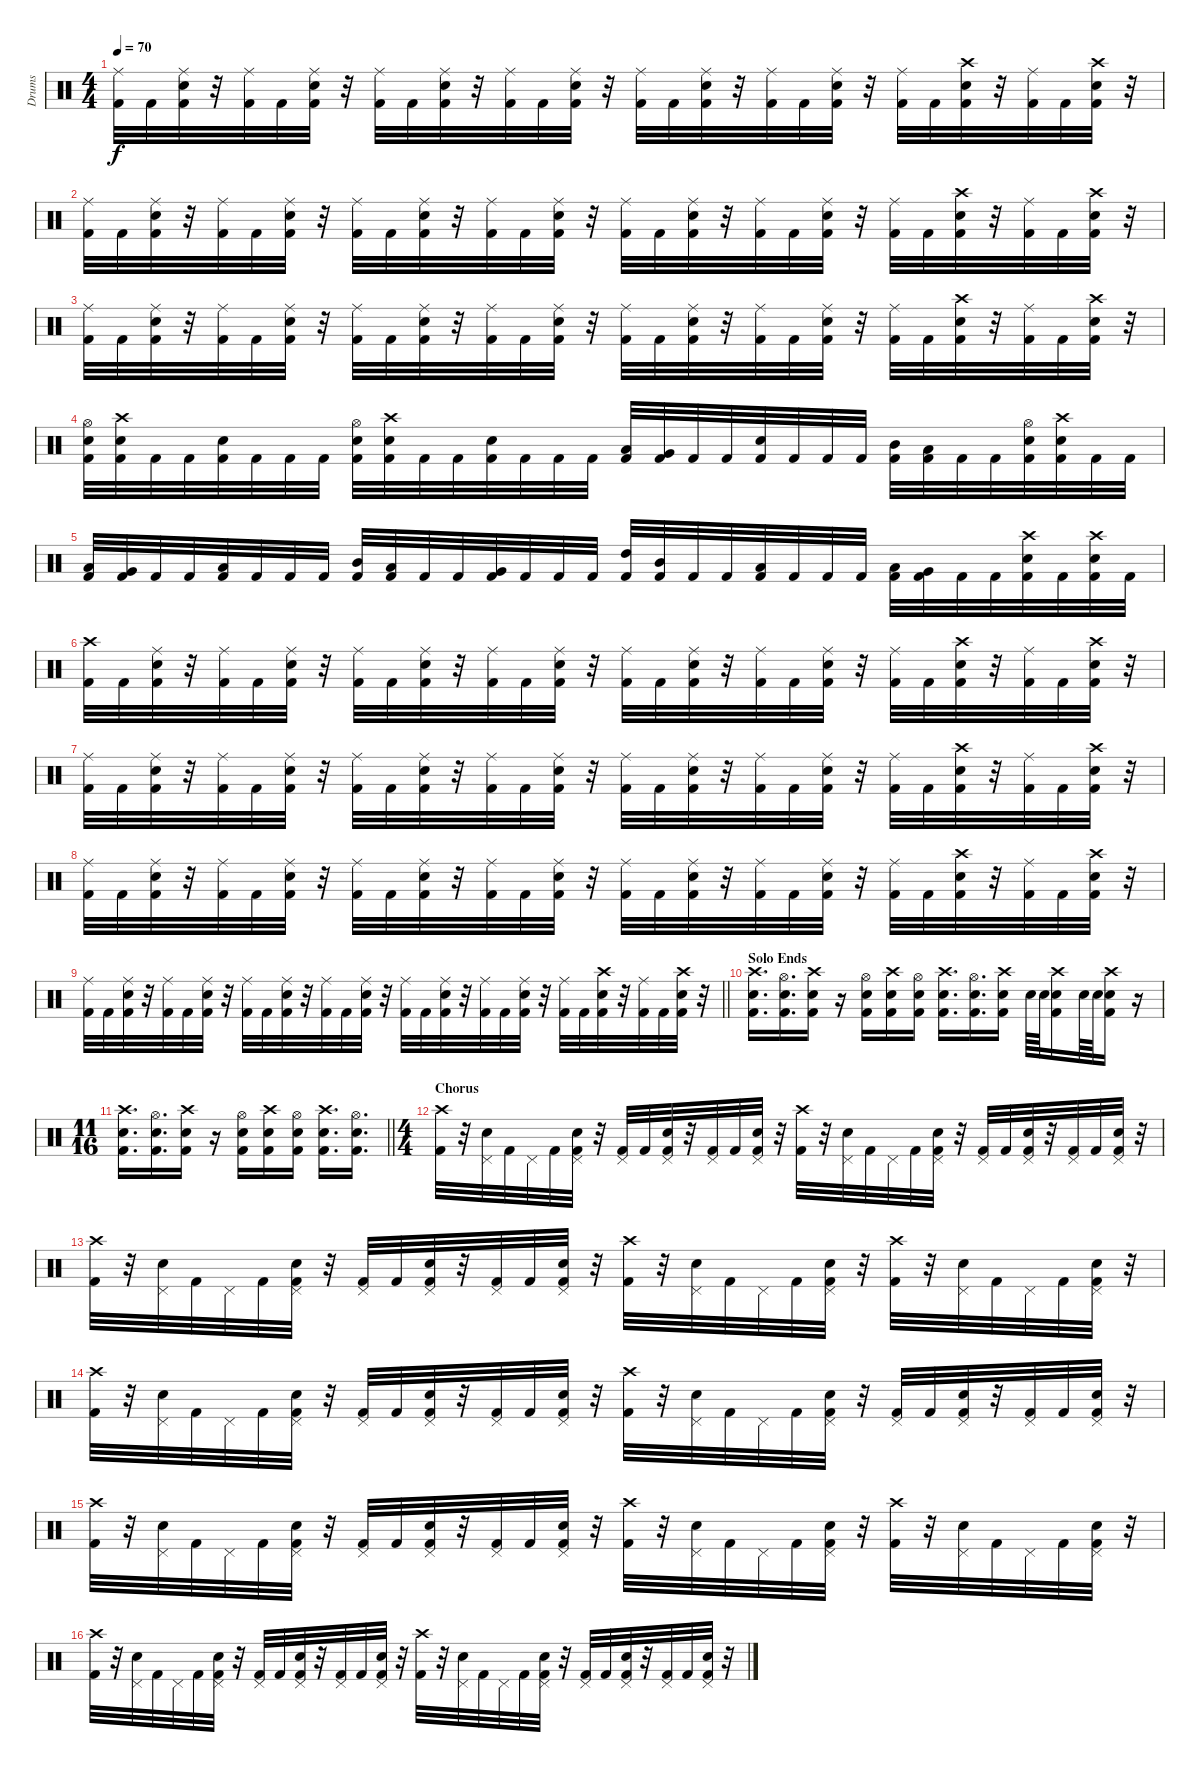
\track ("Drums" "Drums") {instrument percussion}
\staff {score}
\articulation defaults
\ts (4 4)
\tempo 70
\clef neutral
\ks c
("Ride (middle)" "Kick (hit) 2").32{dy f} "Kick (hit) 2".32 ("Ride (middle)" "Snare (hit) 2" "Kick (hit) 2").32 r.32 ("Ride (middle)" "Kick (hit) 2").32 "Kick (hit) 2".32 ("Ride (middle)" "Snare (hit) 2" "Kick (hit) 2").32 r.32 ("Ride (middle)" "Kick (hit) 2").32 "Kick (hit) 2".32 ("Ride (middle)" "Snare (hit) 2" "Kick (hit) 2").32 r.32 ("Ride (middle)" "Kick (hit) 2").32 "Kick (hit) 2".32 ("Ride (middle)" "Snare (hit) 2" "Kick (hit) 2").32 r.32 ("Ride (middle)" "Kick (hit) 2").32 "Kick (hit) 2".32 ("Ride (middle)" "Snare (hit) 2" "Kick (hit) 2").32 r.32 ("Ride (middle)" "Kick (hit) 2").32 "Kick (hit) 2".32 ("Ride (middle)" "Snare (hit) 2" "Kick (hit) 2").32 r.32 ("Ride (middle)" "Kick (hit) 2").32 "Kick (hit) 2".32 ("Crash high (hit)" "Snare (hit) 2" "Kick (hit) 2").32 r.32 ("Ride (middle)" "Kick (hit) 2").32 "Kick (hit) 2".32 ("Crash high (hit)" "Snare (hit) 2" "Kick (hit) 2").32 r.32 |
("Ride (middle)" "Kick (hit) 2").32 "Kick (hit) 2".32 ("Ride (middle)" "Snare (hit) 2" "Kick (hit) 2").32 r.32 ("Ride (middle)" "Kick (hit) 2").32 "Kick (hit) 2".32 ("Ride (middle)" "Snare (hit) 2" "Kick (hit) 2").32 r.32 ("Ride (middle)" "Kick (hit) 2").32 "Kick (hit) 2".32 ("Ride (middle)" "Snare (hit) 2" "Kick (hit) 2").32 r.32 ("Ride (middle)" "Kick (hit) 2").32 "Kick (hit) 2".32 ("Ride (middle)" "Snare (hit) 2" "Kick (hit) 2").32 r.32 ("Ride (middle)" "Kick (hit) 2").32 "Kick (hit) 2".32 ("Ride (middle)" "Snare (hit) 2" "Kick (hit) 2").32 r.32 ("Ride (middle)" "Kick (hit) 2").32 "Kick (hit) 2".32 ("Ride (middle)" "Snare (hit) 2" "Kick (hit) 2").32 r.32 ("Ride (middle)" "Kick (hit) 2").32 "Kick (hit) 2".32 ("Crash high (hit)" "Snare (hit) 2" "Kick (hit) 2").32 r.32 ("Ride (middle)" "Kick (hit) 2").32 "Kick (hit) 2".32 ("Crash high (hit)" "Snare (hit) 2" "Kick (hit) 2").32 r.32 |
("Ride (middle)" "Kick (hit) 2").32 "Kick (hit) 2".32 ("Ride (middle)" "Snare (hit) 2" "Kick (hit) 2").32 r.32 ("Ride (middle)" "Kick (hit) 2").32 "Kick (hit) 2".32 ("Ride (middle)" "Snare (hit) 2" "Kick (hit) 2").32 r.32 ("Ride (middle)" "Kick (hit) 2").32 "Kick (hit) 2".32 ("Ride (middle)" "Snare (hit) 2" "Kick (hit) 2").32 r.32 ("Ride (middle)" "Kick (hit) 2").32 "Kick (hit) 2".32 ("Ride (middle)" "Snare (hit) 2" "Kick (hit) 2").32 r.32 ("Ride (middle)" "Kick (hit) 2").32 "Kick (hit) 2".32 ("Ride (middle)" "Snare (hit) 2" "Kick (hit) 2").32 r.32 ("Ride (middle)" "Kick (hit) 2").32 "Kick (hit) 2".32 ("Ride (middle)" "Snare (hit) 2" "Kick (hit) 2").32 r.32 ("Ride (middle)" "Kick (hit) 2").32 "Kick (hit) 2".32 ("Crash high (hit)" "Snare (hit) 2" "Kick (hit) 2").32 r.32 ("Ride (middle)" "Kick (hit) 2").32 "Kick (hit) 2".32 ("Crash high (hit)" "Snare (hit) 2" "Kick (hit) 2").32 r.32 |
("Hi-Hat (open)" "Snare (hit) 2" "Kick (hit) 2").32 ("Crash high (hit)" "Snare (hit) 2" "Kick (hit) 2").32 "Kick (hit) 2".32 "Kick (hit) 2".32 ("Snare (hit) 2" "Kick (hit) 2").32 "Kick (hit) 2".32 "Kick (hit) 2".32 "Kick (hit) 2".32 ("Hi-Hat (open)" "Snare (hit) 2" "Kick (hit) 2").32 ("Crash high (hit)" "Snare (hit) 2" "Kick (hit) 2").32 "Kick (hit) 2".32 "Kick (hit) 2".32 ("Snare (hit) 2" "Kick (hit) 2").32 "Kick (hit) 2".32 "Kick (hit) 2".32 "Kick (hit) 2".32 ("Low Tom (hit)" "Kick (hit) 2").32 ("Very Low Tom (hit)" "Kick (hit) 2").32 "Kick (hit) 2".32 "Kick (hit) 2".32 ("Snare (hit) 2" "Kick (hit) 2").32 "Kick (hit) 2".32 "Kick (hit) 2".32 "Kick (hit) 2".32 ("Mid Tom (hit)" "Kick (hit) 2").32 ("Low Tom (hit)" "Kick (hit) 2").32 "Kick (hit) 2".32 "Kick (hit) 2".32 ("Hi-Hat (open)" "Snare (hit) 2" "Kick (hit) 2").32 ("Crash high (hit)" "Snare (hit) 2" "Kick (hit) 2").32 "Kick (hit) 2".32 "Kick (hit) 2".32 |
("Low Tom (hit)" "Kick (hit) 2").32 ("Very Low Tom (hit)" "Kick (hit) 2").32 "Kick (hit) 2".32 "Kick (hit) 2".32 ("Low Floor Tom (hit)" "Kick (hit) 2").32 "Kick (hit) 2".32 "Kick (hit) 2".32 "Kick (hit) 2".32 ("Mid Tom (hit)" "Kick (hit) 2").32 ("Low Tom (hit)" "Kick (hit) 2").32 "Kick (hit) 2".32 "Kick (hit) 2".32 ("Very Low Tom (hit)" "Kick (hit) 2").32 "Kick (hit) 2".32 "Kick (hit) 2".32 "Kick (hit) 2".32 ("High Tom (hit)" "Kick (hit) 2").32 ("Mid Tom (hit)" "Kick (hit) 2").32 "Kick (hit) 2".32 "Kick (hit) 2".32 ("Low Tom (hit)" "Kick (hit) 2").32 "Kick (hit) 2".32 "Kick (hit) 2".32 "Kick (hit) 2".32 ("Low Tom (hit)" "Kick (hit) 2").32 ("Very Low Tom (hit)" "Kick (hit) 2").32 "Kick (hit) 2".32 "Kick (hit) 2".32 ("Crash high (hit)" "Snare (hit) 2" "Kick (hit) 2").32 "Kick (hit) 2".32 ("Crash high (hit)" "Snare (hit) 2" "Kick (hit) 2").32 "Kick (hit) 2".32 |
("Crash high (hit)" "Kick (hit) 2").32 "Kick (hit) 2".32 ("Ride (middle)" "Snare (hit) 2" "Kick (hit) 2").32 r.32 ("Ride (middle)" "Kick (hit) 2").32 "Kick (hit) 2".32 ("Ride (middle)" "Snare (hit) 2" "Kick (hit) 2").32 r.32 ("Ride (middle)" "Kick (hit) 2").32 "Kick (hit) 2".32 ("Ride (middle)" "Snare (hit) 2" "Kick (hit) 2").32 r.32 ("Ride (middle)" "Kick (hit) 2").32 "Kick (hit) 2".32 ("Ride (middle)" "Snare (hit) 2" "Kick (hit) 2").32 r.32 ("Ride (middle)" "Kick (hit) 2").32 "Kick (hit) 2".32 ("Ride (middle)" "Snare (hit) 2" "Kick (hit) 2").32 r.32 ("Ride (middle)" "Kick (hit) 2").32 "Kick (hit) 2".32 ("Ride (middle)" "Snare (hit) 2" "Kick (hit) 2").32 r.32 ("Ride (middle)" "Kick (hit) 2").32 "Kick (hit) 2".32 ("Crash high (hit)" "Snare (hit) 2" "Kick (hit) 2").32 r.32 ("Ride (middle)" "Kick (hit) 2").32 "Kick (hit) 2".32 ("Crash high (hit)" "Snare (hit) 2" "Kick (hit) 2").32 r.32 |
("Ride (middle)" "Kick (hit) 2").32 "Kick (hit) 2".32 ("Ride (middle)" "Snare (hit) 2" "Kick (hit) 2").32 r.32 ("Ride (middle)" "Kick (hit) 2").32 "Kick (hit) 2".32 ("Ride (middle)" "Snare (hit) 2" "Kick (hit) 2").32 r.32 ("Ride (middle)" "Kick (hit) 2").32 "Kick (hit) 2".32 ("Ride (middle)" "Snare (hit) 2" "Kick (hit) 2").32 r.32 ("Ride (middle)" "Kick (hit) 2").32 "Kick (hit) 2".32 ("Ride (middle)" "Snare (hit) 2" "Kick (hit) 2").32 r.32 ("Ride (middle)" "Kick (hit) 2").32 "Kick (hit) 2".32 ("Ride (middle)" "Snare (hit) 2" "Kick (hit) 2").32 r.32 ("Ride (middle)" "Kick (hit) 2").32 "Kick (hit) 2".32 ("Ride (middle)" "Snare (hit) 2" "Kick (hit) 2").32 r.32 ("Ride (middle)" "Kick (hit) 2").32 "Kick (hit) 2".32 ("Crash high (hit)" "Snare (hit) 2" "Kick (hit) 2").32 r.32 ("Ride (middle)" "Kick (hit) 2").32 "Kick (hit) 2".32 ("Crash high (hit)" "Snare (hit) 2" "Kick (hit) 2").32 r.32 |
("Ride (middle)" "Kick (hit) 2").32 "Kick (hit) 2".32 ("Ride (middle)" "Snare (hit) 2" "Kick (hit) 2").32 r.32 ("Ride (middle)" "Kick (hit) 2").32 "Kick (hit) 2".32 ("Ride (middle)" "Snare (hit) 2" "Kick (hit) 2").32 r.32 ("Ride (middle)" "Kick (hit) 2").32 "Kick (hit) 2".32 ("Ride (middle)" "Snare (hit) 2" "Kick (hit) 2").32 r.32 ("Ride (middle)" "Kick (hit) 2").32 "Kick (hit) 2".32 ("Ride (middle)" "Snare (hit) 2" "Kick (hit) 2").32 r.32 ("Ride (middle)" "Kick (hit) 2").32 "Kick (hit) 2".32 ("Ride (middle)" "Snare (hit) 2" "Kick (hit) 2").32 r.32 ("Ride (middle)" "Kick (hit) 2").32 "Kick (hit) 2".32 ("Ride (middle)" "Snare (hit) 2" "Kick (hit) 2").32 r.32 ("Ride (middle)" "Kick (hit) 2").32 "Kick (hit) 2".32 ("Crash high (hit)" "Snare (hit) 2" "Kick (hit) 2").32 r.32 ("Ride (middle)" "Kick (hit) 2").32 "Kick (hit) 2".32 ("Crash high (hit)" "Snare (hit) 2" "Kick (hit) 2").32 r.32 |
\barLineRight lightlight
("Ride (middle)" "Kick (hit) 2").32 "Kick (hit) 2".32 ("Ride (middle)" "Snare (hit) 2" "Kick (hit) 2").32 r.32 ("Ride (middle)" "Kick (hit) 2").32 "Kick (hit) 2".32 ("Ride (middle)" "Snare (hit) 2" "Kick (hit) 2").32 r.32 ("Ride (middle)" "Kick (hit) 2").32 "Kick (hit) 2".32 ("Ride (middle)" "Snare (hit) 2" "Kick (hit) 2").32 r.32 ("Ride (middle)" "Kick (hit) 2").32 "Kick (hit) 2".32 ("Ride (middle)" "Snare (hit) 2" "Kick (hit) 2").32 r.32 ("Ride (middle)" "Kick (hit) 2").32 "Kick (hit) 2".32 ("Ride (middle)" "Snare (hit) 2" "Kick (hit) 2").32 r.32 ("Ride (middle)" "Kick (hit) 2").32 "Kick (hit) 2".32 ("Ride (middle)" "Snare (hit) 2" "Kick (hit) 2").32 r.32 ("Ride (middle)" "Kick (hit) 2").32 "Kick (hit) 2".32 ("Crash high (hit)" "Snare (hit) 2" "Kick (hit) 2").32 r.32 ("Ride (middle)" "Kick (hit) 2").32 "Kick (hit) 2".32 ("Crash high (hit)" "Snare (hit) 2" "Kick (hit) 2").32 r.32 |
\section ("" "Solo Ends")
("Crash high (hit)" "Snare (hit) 2" "Kick (hit) 2").16{d} ("Hi-Hat (open)" "Snare (hit) 2" "Kick (hit) 2").16{d} ("Crash high (hit)" "Snare (hit) 2" "Kick (hit) 2").16 r.16 ("Hi-Hat (open)" "Snare (hit) 2" "Kick (hit) 2").16 ("Crash high (hit)" "Snare (hit) 2" "Kick (hit) 2").16 ("Hi-Hat (open)" "Snare (hit) 2" "Kick (hit) 2").16 ("Crash high (hit)" "Snare (hit) 2" "Kick (hit) 2").16{d} ("Hi-Hat (open)" "Snare (hit) 2" "Kick (hit) 2").16{d} ("Crash high (hit)" "Snare (hit) 2" "Kick (hit) 2").16 "Snare (hit) 2".64 "Snare (hit) 2".64 ("Crash high (hit)" "Snare (hit) 2" "Kick (hit) 2").16 "Snare (hit) 2".64 "Snare (hit) 2".64 ("Crash high (hit)" "Snare (hit) 2" "Kick (hit) 2").16 r.16 |
\ts (11 16)
\barLineRight lightlight
("Crash high (hit)" "Snare (hit) 2" "Kick (hit) 2").16{d} ("Hi-Hat (open)" "Snare (hit) 2" "Kick (hit) 2").16{d} ("Crash high (hit)" "Snare (hit) 2" "Kick (hit) 2").16 r.16 ("Hi-Hat (open)" "Snare (hit) 2" "Kick (hit) 2").16 ("Crash high (hit)" "Snare (hit) 2" "Kick (hit) 2").16 ("Hi-Hat (open)" "Snare (hit) 2" "Kick (hit) 2").16 ("Crash high (hit)" "Snare (hit) 2" "Kick (hit) 2").16{d} ("Hi-Hat (open)" "Snare (hit) 2" "Kick (hit) 2").16{d} |
\ts (4 4)
\section ("" "Chorus")
("Crash high (hit)" "Kick (hit) 2").32 r.32 ("Pedal Hi-Hat (hit)" "Snare (hit) 2").32 "Kick (hit) 2".32 "Pedal Hi-Hat (hit)".32 "Kick (hit) 2".32 ("Pedal Hi-Hat (hit)" "Snare (hit) 2" "Kick (hit) 2").32 r.32 ("Pedal Hi-Hat (hit)" "Kick (hit) 2").32 "Kick (hit) 2".32 ("Pedal Hi-Hat (hit)" "Snare (hit) 2" "Kick (hit) 2").32 r.32 ("Pedal Hi-Hat (hit)" "Kick (hit) 2").32 "Kick (hit) 2".32 ("Pedal Hi-Hat (hit)" "Snare (hit) 2" "Kick (hit) 2").32 r.32 ("Crash high (hit)" "Kick (hit) 2").32 r.32 ("Pedal Hi-Hat (hit)" "Snare (hit) 2").32 "Kick (hit) 2".32 "Pedal Hi-Hat (hit)".32 "Kick (hit) 2".32 ("Pedal Hi-Hat (hit)" "Snare (hit) 2" "Kick (hit) 2").32 r.32 ("Pedal Hi-Hat (hit)" "Kick (hit) 2").32 "Kick (hit) 2".32 ("Pedal Hi-Hat (hit)" "Snare (hit) 2" "Kick (hit) 2").32 r.32 ("Pedal Hi-Hat (hit)" "Kick (hit) 2").32 "Kick (hit) 2".32 ("Pedal Hi-Hat (hit)" "Snare (hit) 2" "Kick (hit) 2").32 r.32 |
("Crash high (hit)" "Kick (hit) 2").32 r.32 ("Pedal Hi-Hat (hit)" "Snare (hit) 2").32 "Kick (hit) 2".32 "Pedal Hi-Hat (hit)".32 "Kick (hit) 2".32 ("Pedal Hi-Hat (hit)" "Snare (hit) 2" "Kick (hit) 2").32 r.32 ("Pedal Hi-Hat (hit)" "Kick (hit) 2").32 "Kick (hit) 2".32 ("Pedal Hi-Hat (hit)" "Snare (hit) 2" "Kick (hit) 2").32 r.32 ("Pedal Hi-Hat (hit)" "Kick (hit) 2").32 "Kick (hit) 2".32 ("Pedal Hi-Hat (hit)" "Snare (hit) 2" "Kick (hit) 2").32 r.32 ("Crash high (hit)" "Kick (hit) 2").32 r.32 ("Pedal Hi-Hat (hit)" "Snare (hit) 2").32 "Kick (hit) 2".32 "Pedal Hi-Hat (hit)".32 "Kick (hit) 2".32 ("Pedal Hi-Hat (hit)" "Snare (hit) 2" "Kick (hit) 2").32 r.32 ("Crash high (hit)" "Kick (hit) 2").32 r.32 ("Pedal Hi-Hat (hit)" "Snare (hit) 2").32 "Kick (hit) 2".32 "Pedal Hi-Hat (hit)".32 "Kick (hit) 2".32 ("Pedal Hi-Hat (hit)" "Snare (hit) 2" "Kick (hit) 2").32 r.32 |
("Crash high (hit)" "Kick (hit) 2").32 r.32 ("Pedal Hi-Hat (hit)" "Snare (hit) 2").32 "Kick (hit) 2".32 "Pedal Hi-Hat (hit)".32 "Kick (hit) 2".32 ("Pedal Hi-Hat (hit)" "Snare (hit) 2" "Kick (hit) 2").32 r.32 ("Pedal Hi-Hat (hit)" "Kick (hit) 2").32 "Kick (hit) 2".32 ("Pedal Hi-Hat (hit)" "Snare (hit) 2" "Kick (hit) 2").32 r.32 ("Pedal Hi-Hat (hit)" "Kick (hit) 2").32 "Kick (hit) 2".32 ("Pedal Hi-Hat (hit)" "Snare (hit) 2" "Kick (hit) 2").32 r.32 ("Crash high (hit)" "Kick (hit) 2").32 r.32 ("Pedal Hi-Hat (hit)" "Snare (hit) 2").32 "Kick (hit) 2".32 "Pedal Hi-Hat (hit)".32 "Kick (hit) 2".32 ("Pedal Hi-Hat (hit)" "Snare (hit) 2" "Kick (hit) 2").32 r.32 ("Pedal Hi-Hat (hit)" "Kick (hit) 2").32 "Kick (hit) 2".32 ("Pedal Hi-Hat (hit)" "Snare (hit) 2" "Kick (hit) 2").32 r.32 ("Pedal Hi-Hat (hit)" "Kick (hit) 2").32 "Kick (hit) 2".32 ("Pedal Hi-Hat (hit)" "Snare (hit) 2" "Kick (hit) 2").32 r.32 |
("Crash high (hit)" "Kick (hit) 2").32 r.32 ("Pedal Hi-Hat (hit)" "Snare (hit) 2").32 "Kick (hit) 2".32 "Pedal Hi-Hat (hit)".32 "Kick (hit) 2".32 ("Pedal Hi-Hat (hit)" "Snare (hit) 2" "Kick (hit) 2").32 r.32 ("Pedal Hi-Hat (hit)" "Kick (hit) 2").32 "Kick (hit) 2".32 ("Pedal Hi-Hat (hit)" "Snare (hit) 2" "Kick (hit) 2").32 r.32 ("Pedal Hi-Hat (hit)" "Kick (hit) 2").32 "Kick (hit) 2".32 ("Pedal Hi-Hat (hit)" "Snare (hit) 2" "Kick (hit) 2").32 r.32 ("Crash high (hit)" "Kick (hit) 2").32 r.32 ("Pedal Hi-Hat (hit)" "Snare (hit) 2").32 "Kick (hit) 2".32 "Pedal Hi-Hat (hit)".32 "Kick (hit) 2".32 ("Pedal Hi-Hat (hit)" "Snare (hit) 2" "Kick (hit) 2").32 r.32 ("Crash high (hit)" "Kick (hit) 2").32 r.32 ("Pedal Hi-Hat (hit)" "Snare (hit) 2").32 "Kick (hit) 2".32 "Pedal Hi-Hat (hit)".32 "Kick (hit) 2".32 ("Pedal Hi-Hat (hit)" "Snare (hit) 2" "Kick (hit) 2").32 r.32 |
("Crash high (hit)" "Kick (hit) 2").32 r.32 ("Pedal Hi-Hat (hit)" "Snare (hit) 2").32 "Kick (hit) 2".32 "Pedal Hi-Hat (hit)".32 "Kick (hit) 2".32 ("Pedal Hi-Hat (hit)" "Snare (hit) 2" "Kick (hit) 2").32 r.32 ("Pedal Hi-Hat (hit)" "Kick (hit) 2").32 "Kick (hit) 2".32 ("Pedal Hi-Hat (hit)" "Snare (hit) 2" "Kick (hit) 2").32 r.32 ("Pedal Hi-Hat (hit)" "Kick (hit) 2").32 "Kick (hit) 2".32 ("Pedal Hi-Hat (hit)" "Snare (hit) 2" "Kick (hit) 2").32 r.32 ("Crash high (hit)" "Kick (hit) 2").32 r.32 ("Pedal Hi-Hat (hit)" "Snare (hit) 2").32 "Kick (hit) 2".32 "Pedal Hi-Hat (hit)".32 "Kick (hit) 2".32 ("Pedal Hi-Hat (hit)" "Snare (hit) 2" "Kick (hit) 2").32 r.32 ("Pedal Hi-Hat (hit)" "Kick (hit) 2").32 "Kick (hit) 2".32 ("Pedal Hi-Hat (hit)" "Snare (hit) 2" "Kick (hit) 2").32 r.32 ("Pedal Hi-Hat (hit)" "Kick (hit) 2").32 "Kick (hit) 2".32 ("Pedal Hi-Hat (hit)" "Snare (hit) 2" "Kick (hit) 2").32 r.32
